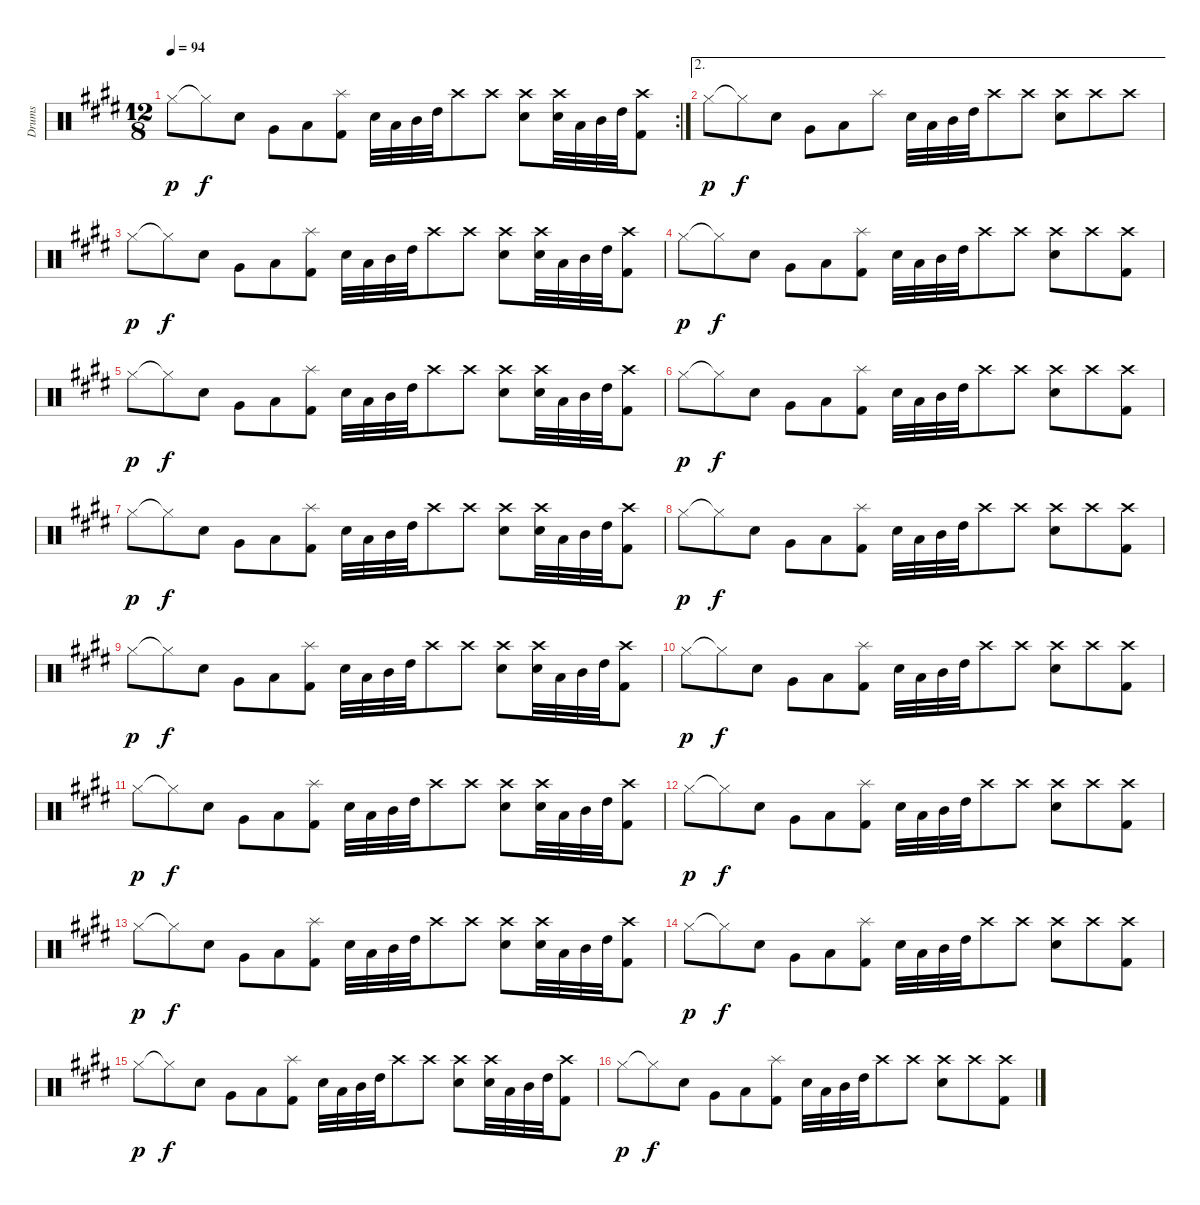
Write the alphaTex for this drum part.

\track ("Drums" "Drums") {instrument percussion}
\staff {score}
\articulation defaults
\rc 2
\ts (12 8)
\tempo 94
\clef neutral
\ks e "Hi-Hat (closed)".8{dy p} "Hi-Hat (closed)"{t}.8{dy f} "Snare (hit) 2".8 "Very Low Tom (hit)".8 "Low Tom (hit)".8
("Splash (hit)" "Kick (hit) 2").8 "Snare (hit) 2".32 "Low Tom (hit)".32 "Mid Tom (hit)".32 "High Tom (hit)".32 "Crash high (hit)".8 "Crash high (hit)".8 ("Crash high (hit)" "Snare (hit) 2").8 ("Crash high (hit)" "Snare (hit) 2").32 "Low Tom (hit)".32 "Mid Tom (hit)".32 "High Tom (hit)".32 ("Crash high (hit)" "Kick (hit) 2").8 |
\ae 2 "Hi-Hat (closed)".8{dy p} "Hi-Hat (closed)"{t}.8{dy f} "Snare (hit) 2".8 "Very Low Tom (hit)".8 "Low Tom (hit)".8 "Splash (hit)".8 "Snare (hit) 2".32 "Low Tom (hit)".32 "Mid Tom (hit)".32 "High Tom (hit)".32 "Crash high (hit)".8 "Crash high (hit)".8
("Crash high (hit)" "Snare (hit) 2").8 "Crash high (hit)".8 "Crash high (hit)".8 |
"Hi-Hat (closed)".8{dy p} "Hi-Hat (closed)"{t}.8{dy f} "Snare (hit) 2".8 "Very Low Tom (hit)".8 "Low Tom (hit)".8 ("Splash (hit)" "Kick (hit) 2").8 "Snare (hit) 2".32 "Low Tom (hit)".32 "Mid Tom (hit)".32 "High Tom (hit)".32 "Crash high (hit)".8 "Crash high (hit)".8 ("Crash high (hit)" "Snare (hit) 2").8 ("Crash high (hit)" "Snare (hit) 2").32 "Low Tom (hit)".32 "Mid Tom (hit)".32 "High Tom (hit)".32 ("Crash high (hit)" "Kick (hit) 2").8 |
"Hi-Hat (closed)".8{dy p} "Hi-Hat (closed)"{t}.8{dy f} "Snare (hit) 2".8 "Very Low Tom (hit)".8 "Low Tom (hit)".8 ("Splash (hit)" "Kick (hit) 2").8 "Snare (hit) 2".32 "Low Tom (hit)".32 "Mid Tom (hit)".32 "High Tom (hit)".32 "Crash high (hit)".8 "Crash high (hit)".8 ("Crash high (hit)" "Snare (hit) 2").8 "Crash high (hit)".8 ("Crash high (hit)" "Kick (hit) 2").8 |
"Hi-Hat (closed)".8{dy p} "Hi-Hat (closed)"{t}.8{dy f} "Snare (hit) 2".8 "Very Low Tom (hit)".8 "Low Tom (hit)".8 ("Splash (hit)" "Kick (hit) 2").8 "Snare (hit) 2".32 "Low Tom (hit)".32 "Mid Tom (hit)".32 "High Tom (hit)".32 "Crash high (hit)".8 "Crash high (hit)".8 ("Crash high (hit)" "Snare (hit) 2").8 ("Crash high (hit)" "Snare (hit) 2").32 "Low Tom (hit)".32 "Mid Tom (hit)".32 "High Tom (hit)".32 ("Crash high (hit)" "Kick (hit) 2").8 |
"Hi-Hat (closed)".8{dy p} "Hi-Hat (closed)"{t}.8{dy f} "Snare (hit) 2".8 "Very Low Tom (hit)".8 "Low Tom (hit)".8 ("Splash (hit)" "Kick (hit) 2").8 "Snare (hit) 2".32 "Low Tom (hit)".32 "Mid Tom (hit)".32 "High Tom (hit)".32 "Crash high (hit)".8 "Crash high (hit)".8 ("Crash high (hit)" "Snare (hit) 2").8 "Crash high (hit)".8 ("Crash high (hit)" "Kick (hit) 2").8 |
"Hi-Hat (closed)".8{dy p} "Hi-Hat (closed)"{t}.8{dy f} "Snare (hit) 2".8 "Very Low Tom (hit)".8 "Low Tom (hit)".8 ("Splash (hit)" "Kick (hit) 2").8 "Snare (hit) 2".32 "Low Tom (hit)".32 "Mid Tom (hit)".32 "High Tom (hit)".32 "Crash high (hit)".8 "Crash high (hit)".8 ("Crash high (hit)" "Snare (hit) 2").8 ("Crash high (hit)" "Snare (hit) 2").32 "Low Tom (hit)".32 "Mid Tom (hit)".32 "High Tom (hit)".32 ("Crash high (hit)" "Kick (hit) 2").8 |
"Hi-Hat (closed)".8{dy p} "Hi-Hat (closed)"{t}.8{dy f} "Snare (hit) 2".8 "Very Low Tom (hit)".8 "Low Tom (hit)".8 ("Splash (hit)" "Kick (hit) 2").8 "Snare (hit) 2".32 "Low Tom (hit)".32 "Mid Tom (hit)".32 "High Tom (hit)".32 "Crash high (hit)".8 "Crash high (hit)".8 ("Crash high (hit)" "Snare (hit) 2").8 "Crash high (hit)".8 ("Crash high (hit)" "Kick (hit) 2").8 |
"Hi-Hat (closed)".8{dy p} "Hi-Hat (closed)"{t}.8{dy f} "Snare (hit) 2".8 "Very Low Tom (hit)".8 "Low Tom (hit)".8 ("Splash (hit)" "Kick (hit) 2").8 "Snare (hit) 2".32 "Low Tom (hit)".32 "Mid Tom (hit)".32 "High Tom (hit)".32 "Crash high (hit)".8 "Crash high (hit)".8 ("Crash high (hit)" "Snare (hit) 2").8 ("Crash high (hit)" "Snare (hit) 2").32 "Low Tom (hit)".32 "Mid Tom (hit)".32 "High Tom (hit)".32 ("Crash high (hit)" "Kick (hit) 2").8 |
"Hi-Hat (closed)".8{dy p} "Hi-Hat (closed)"{t}.8{dy f} "Snare (hit) 2".8 "Very Low Tom (hit)".8 "Low Tom (hit)".8 ("Splash (hit)" "Kick (hit) 2").8 "Snare (hit) 2".32 "Low Tom (hit)".32 "Mid Tom (hit)".32 "High Tom (hit)".32 "Crash high (hit)".8 "Crash high (hit)".8 ("Crash high (hit)" "Snare (hit) 2").8 "Crash high (hit)".8 ("Crash high (hit)" "Kick (hit) 2").8 |
"Hi-Hat (closed)".8{dy p} "Hi-Hat (closed)"{t}.8{dy f} "Snare (hit) 2".8 "Very Low Tom (hit)".8 "Low Tom (hit)".8 ("Splash (hit)" "Kick (hit) 2").8 "Snare (hit) 2".32 "Low Tom (hit)".32 "Mid Tom (hit)".32 "High Tom (hit)".32 "Crash high (hit)".8 "Crash high (hit)".8 ("Crash high (hit)" "Snare (hit) 2").8 ("Crash high (hit)" "Snare (hit) 2").32 "Low Tom (hit)".32 "Mid Tom (hit)".32 "High Tom (hit)".32 ("Crash high (hit)" "Kick (hit) 2").8 |
"Hi-Hat (closed)".8{dy p} "Hi-Hat (closed)"{t}.8{dy f} "Snare (hit) 2".8 "Very Low Tom (hit)".8 "Low Tom (hit)".8 ("Splash (hit)" "Kick (hit) 2").8 "Snare (hit) 2".32 "Low Tom (hit)".32 "Mid Tom (hit)".32 "High Tom (hit)".32 "Crash high (hit)".8 "Crash high (hit)".8 ("Crash high (hit)" "Snare (hit) 2").8 "Crash high (hit)".8 ("Crash high (hit)" "Kick (hit) 2").8 |
"Hi-Hat (closed)".8{dy p} "Hi-Hat (closed)"{t}.8{dy f} "Snare (hit) 2".8 "Very Low Tom (hit)".8 "Low Tom (hit)".8 ("Splash (hit)" "Kick (hit) 2").8 "Snare (hit) 2".32 "Low Tom (hit)".32 "Mid Tom (hit)".32 "High Tom (hit)".32 "Crash high (hit)".8 "Crash high (hit)".8 ("Crash high (hit)" "Snare (hit) 2").8 ("Crash high (hit)" "Snare (hit) 2").32 "Low Tom (hit)".32 "Mid Tom (hit)".32 "High Tom (hit)".32 ("Crash high (hit)" "Kick (hit) 2").8 |
"Hi-Hat (closed)".8{dy p} "Hi-Hat (closed)"{t}.8{dy f} "Snare (hit) 2".8 "Very Low Tom (hit)".8 "Low Tom (hit)".8 ("Splash (hit)" "Kick (hit) 2").8 "Snare (hit) 2".32 "Low Tom (hit)".32 "Mid Tom (hit)".32 "High Tom (hit)".32 "Crash high (hit)".8 "Crash high (hit)".8 ("Crash high (hit)" "Snare (hit) 2").8 "Crash high (hit)".8 ("Crash high (hit)" "Kick (hit) 2").8 |
"Hi-Hat (closed)".8{dy p} "Hi-Hat (closed)"{t}.8{dy f} "Snare (hit) 2".8 "Very Low Tom (hit)".8 "Low Tom (hit)".8 ("Splash (hit)" "Kick (hit) 2").8 "Snare (hit) 2".32 "Low Tom (hit)".32 "Mid Tom (hit)".32 "High Tom (hit)".32 "Crash high (hit)".8 "Crash high (hit)".8 ("Crash high (hit)" "Snare (hit) 2").8 ("Crash high (hit)" "Snare (hit) 2").32 "Low Tom (hit)".32 "Mid Tom (hit)".32 "High Tom (hit)".32 ("Crash high (hit)" "Kick (hit) 2").8 |
"Hi-Hat (closed)".8{dy p} "Hi-Hat (closed)"{t}.8{dy f} "Snare (hit) 2".8 "Very Low Tom (hit)".8 "Low Tom (hit)".8 ("Splash (hit)" "Kick (hit) 2").8 "Snare (hit) 2".32 "Low Tom (hit)".32 "Mid Tom (hit)".32 "High Tom (hit)".32 "Crash high (hit)".8 "Crash high (hit)".8 ("Crash high (hit)" "Snare (hit) 2").8 "Crash high (hit)".8 ("Crash high (hit)" "Kick (hit) 2").8
